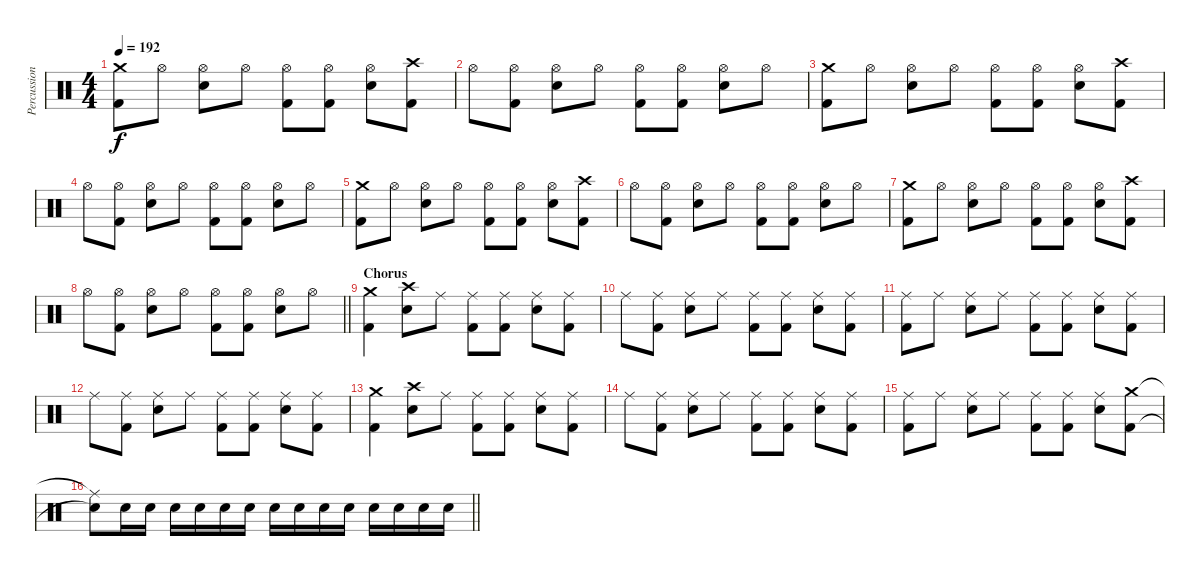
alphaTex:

\track ("Percussion" "Percussion") {instrument percussion}
\staff {score}
\articulation defaults
\ts (4 4)
\tempo 192
\clef neutral
\ks c
("Crash medium (hit)" "Kick (hit) 2").8{dy f} "Hi-Hat (open)".8 ("Hi-Hat (open)" "Electric Snare (hit)").8 "Hi-Hat (open)".8 ("Hi-Hat (open)" "Kick (hit) 2").8 ("Hi-Hat (open)" "Kick (hit) 2").8 ("Hi-Hat (open)" "Electric Snare (hit)").8 ("Crash high (hit)" "Kick (hit) 2").8 |
"Hi-Hat (open)".8 ("Hi-Hat (open)" "Kick (hit) 2").8 ("Hi-Hat (open)" "Electric Snare (hit)").8 "Hi-Hat (open)".8 ("Hi-Hat (open)" "Kick (hit) 2").8 ("Hi-Hat (open)" "Kick (hit) 2").8 ("Hi-Hat (open)" "Electric Snare (hit)").8 "Hi-Hat (open)".8 |
("Crash medium (hit)" "Kick (hit) 2").8 "Hi-Hat (open)".8 ("Hi-Hat (open)" "Electric Snare (hit)").8 "Hi-Hat (open)".8 ("Hi-Hat (open)" "Kick (hit) 2").8 ("Hi-Hat (open)" "Kick (hit) 2").8 ("Hi-Hat (open)" "Electric Snare (hit)").8 ("Crash high (hit)" "Kick (hit) 2").8 |
"Hi-Hat (open)".8 ("Hi-Hat (open)" "Kick (hit) 2").8 ("Hi-Hat (open)" "Electric Snare (hit)").8 "Hi-Hat (open)".8 ("Hi-Hat (open)" "Kick (hit) 2").8 ("Hi-Hat (open)" "Kick (hit) 2").8 ("Hi-Hat (open)" "Electric Snare (hit)").8 "Hi-Hat (open)".8 |
("Crash medium (hit)" "Kick (hit) 2").8 "Hi-Hat (open)".8 ("Hi-Hat (open)" "Electric Snare (hit)").8 "Hi-Hat (open)".8 ("Hi-Hat (open)" "Kick (hit) 2").8 ("Hi-Hat (open)" "Kick (hit) 2").8 ("Hi-Hat (open)" "Electric Snare (hit)").8 ("Crash high (hit)" "Kick (hit) 2").8 |
"Hi-Hat (open)".8 ("Hi-Hat (open)" "Kick (hit) 2").8 ("Hi-Hat (open)" "Electric Snare (hit)").8 "Hi-Hat (open)".8 ("Hi-Hat (open)" "Kick (hit) 2").8 ("Hi-Hat (open)" "Kick (hit) 2").8 ("Hi-Hat (open)" "Electric Snare (hit)").8 "Hi-Hat (open)".8 |
("Crash medium (hit)" "Kick (hit) 2").8 "Hi-Hat (open)".8 ("Hi-Hat (open)" "Electric Snare (hit)").8 "Hi-Hat (open)".8 ("Hi-Hat (open)" "Kick (hit) 2").8 ("Hi-Hat (open)" "Kick (hit) 2").8 ("Hi-Hat (open)" "Electric Snare (hit)").8 ("Crash high (hit)" "Kick (hit) 2").8 |
\barLineRight lightlight "Hi-Hat (open)".8
("Hi-Hat (open)" "Kick (hit) 2").8 ("Hi-Hat (open)" "Electric Snare (hit)").8 "Hi-Hat (open)".8 ("Hi-Hat (open)" "Kick (hit) 2").8 ("Hi-Hat (open)" "Kick (hit) 2").8 ("Hi-Hat (open)" "Electric Snare (hit)").8 "Hi-Hat (open)".8 |
\section ("" "Chorus")
("Crash medium (hit)" "Kick (hit) 2").4 ("Crash high (hit)" "Electric Snare (hit)").8 "Ride (middle)".8 ("Ride (middle)" "Kick (hit) 2").8 ("Ride (middle)" "Kick (hit) 2").8 ("Ride (middle)" "Electric Snare (hit)").8 ("Ride (middle)" "Kick (hit) 2").8 |
"Ride (middle)".8 ("Ride (middle)" "Kick (hit) 2").8 ("Ride (middle)" "Electric Snare (hit)").8 "Ride (middle)".8 ("Ride (middle)" "Kick (hit) 2").8 ("Ride (middle)" "Kick (hit) 2").8 ("Ride (middle)" "Electric Snare (hit)").8 ("Ride (middle)" "Kick (hit) 2").8 |
("Ride (middle)" "Kick (hit) 2").8 "Ride (middle)".8 ("Ride (middle)" "Electric Snare (hit)").8 "Ride (middle)".8 ("Ride (middle)" "Kick (hit) 2").8 ("Ride (middle)" "Kick (hit) 2").8 ("Ride (middle)" "Electric Snare (hit)").8 ("Ride (middle)" "Kick (hit) 2").8 |
"Ride (middle)".8 ("Ride (middle)" "Kick (hit) 2").8 ("Ride (middle)" "Electric Snare (hit)").8 "Ride (middle)".8 ("Ride (middle)" "Kick (hit) 2").8 ("Ride (middle)" "Kick (hit) 2").8 ("Ride (middle)" "Electric Snare (hit)").8 ("Ride (middle)" "Kick (hit) 2").8 |
("Crash medium (hit)" "Kick (hit) 2").4 ("Crash high (hit)" "Electric Snare (hit)").8 "Ride (middle)".8 ("Ride (middle)" "Kick (hit) 2").8 ("Ride (middle)" "Kick (hit) 2").8 ("Ride (middle)" "Electric Snare (hit)").8 ("Ride (middle)" "Kick (hit) 2").8 |
"Ride (middle)".8 ("Ride (middle)" "Kick (hit) 2").8 ("Ride (middle)" "Electric Snare (hit)").8 "Ride (middle)".8 ("Ride (middle)" "Kick (hit) 2").8 ("Ride (middle)" "Kick (hit) 2").8 ("Ride (middle)" "Electric Snare (hit)").8 ("Ride (middle)" "Kick (hit) 2").8 |
("Ride (middle)" "Kick (hit) 2").8 "Ride (middle)".8 ("Ride (middle)" "Electric Snare (hit)").8 "Ride (middle)".8 ("Ride (middle)" "Kick (hit) 2").8 ("Ride (middle)" "Kick (hit) 2").8 ("Ride (middle)" "Electric Snare (hit)").8 ("Crash medium (hit)" "Kick (hit) 2").8 |
\barLineRight lightlight
("Ride (middle)"{t} "Snare (hit)"{t}).8 "Electric Snare (hit)".16 "Electric Snare (hit)".16 "Electric Snare (hit)".16 "Electric Snare (hit)".16 "Electric Snare (hit)".16 "Electric Snare (hit)".16 "Electric Snare (hit)".16 "Electric Snare (hit)".16 "Electric Snare (hit)".16 "Electric Snare (hit)".16 "Electric Snare (hit)".16 "Electric Snare (hit)".16 "Electric Snare (hit)".16 "Electric Snare (hit)".16
